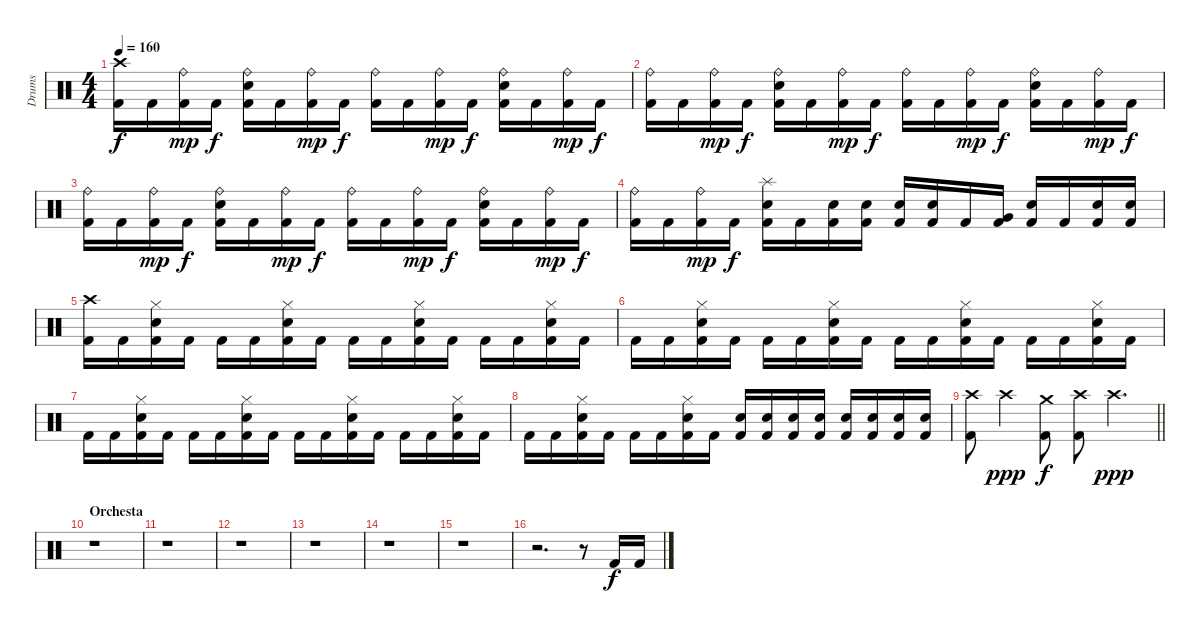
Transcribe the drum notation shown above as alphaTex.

\track ("Drums" "Drums") {instrument percussion}
\staff {score}
\articulation defaults
\ts (4 4)
\tempo 160
\clef neutral
\ks c
("Kick (hit) 2" "Crash high (hit)").16{dy f} "Kick (hit) 2".16 ("Kick (hit) 2" "Ride (bell)").16{dy mp} "Kick (hit) 2".16{dy f} ("Kick (hit) 2" "Ride (bell)" "Electric Snare (hit)").16 "Kick (hit) 2".16 ("Kick (hit) 2" "Ride (bell)").16{dy mp} "Kick (hit) 2".16{dy f} ("Kick (hit) 2" "Ride (bell)").16 "Kick (hit) 2".16 ("Kick (hit) 2" "Ride (bell)").16{dy mp} "Kick (hit) 2".16{dy f} ("Kick (hit) 2" "Ride (bell)" "Electric Snare (hit)").16 "Kick (hit) 2".16 ("Kick (hit) 2" "Ride (bell)").16{dy mp} "Kick (hit) 2".16{dy f} |
("Kick (hit) 2" "Ride (bell)").16 "Kick (hit) 2".16 ("Kick (hit) 2" "Ride (bell)").16{dy mp} "Kick (hit) 2".16{dy f} ("Kick (hit) 2" "Ride (bell)" "Electric Snare (hit)").16 "Kick (hit) 2".16 ("Kick (hit) 2" "Ride (bell)").16{dy mp} "Kick (hit) 2".16{dy f} ("Kick (hit) 2" "Ride (bell)").16 "Kick (hit) 2".16 ("Kick (hit) 2" "Ride (bell)").16{dy mp} "Kick (hit) 2".16{dy f} ("Kick (hit) 2" "Ride (bell)" "Electric Snare (hit)").16 "Kick (hit) 2".16 ("Kick (hit) 2" "Ride (bell)").16{dy mp} "Kick (hit) 2".16{dy f} |
("Kick (hit) 2" "Ride (bell)").16 "Kick (hit) 2".16 ("Kick (hit) 2" "Ride (bell)").16{dy mp} "Kick (hit) 2".16{dy f} ("Kick (hit) 2" "Ride (bell)" "Electric Snare (hit)").16 "Kick (hit) 2".16 ("Kick (hit) 2" "Ride (bell)").16{dy mp} "Kick (hit) 2".16{dy f} ("Kick (hit) 2" "Ride (bell)").16 "Kick (hit) 2".16 ("Kick (hit) 2" "Ride (bell)").16{dy mp} "Kick (hit) 2".16{dy f} ("Kick (hit) 2" "Ride (bell)" "Electric Snare (hit)").16 "Kick (hit) 2".16 ("Kick (hit) 2" "Ride (bell)").16{dy mp} "Kick (hit) 2".16{dy f} |
("Kick (hit) 2" "Ride (bell)").16 "Kick (hit) 2".16 ("Kick (hit) 2" "Ride (bell)").16{dy mp} "Kick (hit) 2".16{dy f} ("Kick (hit) 2" "Splash (hit)" "Electric Snare (hit)").16 "Kick (hit) 2".16 ("Kick (hit) 2" "Electric Snare (hit)").16 ("Kick (hit) 2" "Electric Snare (hit)").16 ("Kick (hit) 2" "Electric Snare (hit)").16 ("Kick (hit) 2" "Electric Snare (hit)").16 "Kick (hit) 2".16 ("Kick (hit) 2" "Very Low Tom (hit)").16 ("Kick (hit) 2" "Electric Snare (hit)").16 "Kick (hit) 2".16 ("Kick (hit) 2" "Electric Snare (hit)").16 ("Kick (hit) 2" "Electric Snare (hit)").16 |
("Kick (hit) 2" "Crash high (hit)").16 "Kick (hit) 2".16 ("Kick (hit) 2" "Hi-Hat (closed)" "Electric Snare (hit)").16 "Kick (hit) 2".16 "Kick (hit) 2".16 "Kick (hit) 2".16 ("Kick (hit) 2" "Hi-Hat (closed)" "Electric Snare (hit)").16 "Kick (hit) 2".16 "Kick (hit) 2".16 "Kick (hit) 2".16 ("Kick (hit) 2" "Hi-Hat (closed)" "Electric Snare (hit)").16 "Kick (hit) 2".16 "Kick (hit) 2".16 "Kick (hit) 2".16 ("Kick (hit) 2" "Hi-Hat (closed)" "Electric Snare (hit)").16 "Kick (hit) 2".16 |
"Kick (hit) 2".16 "Kick (hit) 2".16 ("Kick (hit) 2" "Hi-Hat (closed)" "Electric Snare (hit)").16 "Kick (hit) 2".16 "Kick (hit) 2".16 "Kick (hit) 2".16 ("Kick (hit) 2" "Hi-Hat (closed)" "Electric Snare (hit)").16 "Kick (hit) 2".16 "Kick (hit) 2".16 "Kick (hit) 2".16 ("Kick (hit) 2" "Hi-Hat (closed)" "Electric Snare (hit)").16 "Kick (hit) 2".16 "Kick (hit) 2".16 "Kick (hit) 2".16 ("Kick (hit) 2" "Hi-Hat (closed)" "Electric Snare (hit)").16 "Kick (hit) 2".16 |
"Kick (hit) 2".16 "Kick (hit) 2".16 ("Kick (hit) 2" "Hi-Hat (closed)" "Electric Snare (hit)").16 "Kick (hit) 2".16 "Kick (hit) 2".16 "Kick (hit) 2".16 ("Kick (hit) 2" "Hi-Hat (closed)" "Electric Snare (hit)").16 "Kick (hit) 2".16 "Kick (hit) 2".16 "Kick (hit) 2".16 ("Kick (hit) 2" "Hi-Hat (closed)" "Electric Snare (hit)").16 "Kick (hit) 2".16 "Kick (hit) 2".16 "Kick (hit) 2".16 ("Kick (hit) 2" "Hi-Hat (closed)" "Electric Snare (hit)").16 "Kick (hit) 2".16 |
"Kick (hit) 2".16 "Kick (hit) 2".16 ("Kick (hit) 2" "Hi-Hat (closed)" "Electric Snare (hit)").16 "Kick (hit) 2".16 "Kick (hit) 2".16 "Kick (hit) 2".16 ("Kick (hit) 2" "Hi-Hat (closed)" "Electric Snare (hit)").16 "Kick (hit) 2".16 ("Kick (hit) 2" "Electric Snare (hit)").16 ("Kick (hit) 2" "Electric Snare (hit)").16 ("Kick (hit) 2" "Electric Snare (hit)").16 ("Kick (hit) 2" "Electric Snare (hit)").16 ("Kick (hit) 2" "Electric Snare (hit)").16 ("Kick (hit) 2" "Electric Snare (hit)").16 ("Kick (hit) 2" "Electric Snare (hit)").16 ("Kick (hit) 2" "Electric Snare (hit)").16 |
\barLineRight lightlight
("Kick (hit) 2" "Crash high (hit)").8 "Crash high (hit)".4{dy ppp} ("Kick (hit) 2" "Crash medium (hit)").8{dy f} ("Kick (hit) 2" "Crash high (hit)").8 "Crash high (hit)".4{d dy ppp} |
\section ("" "Orchesta")
r.1 |
r.1 |
r.1 |
r.1 |
r.1 |
r.1 |
r.2{d} r.8 "Kick (hit) 2".16{dy f} "Kick (hit) 2".16
